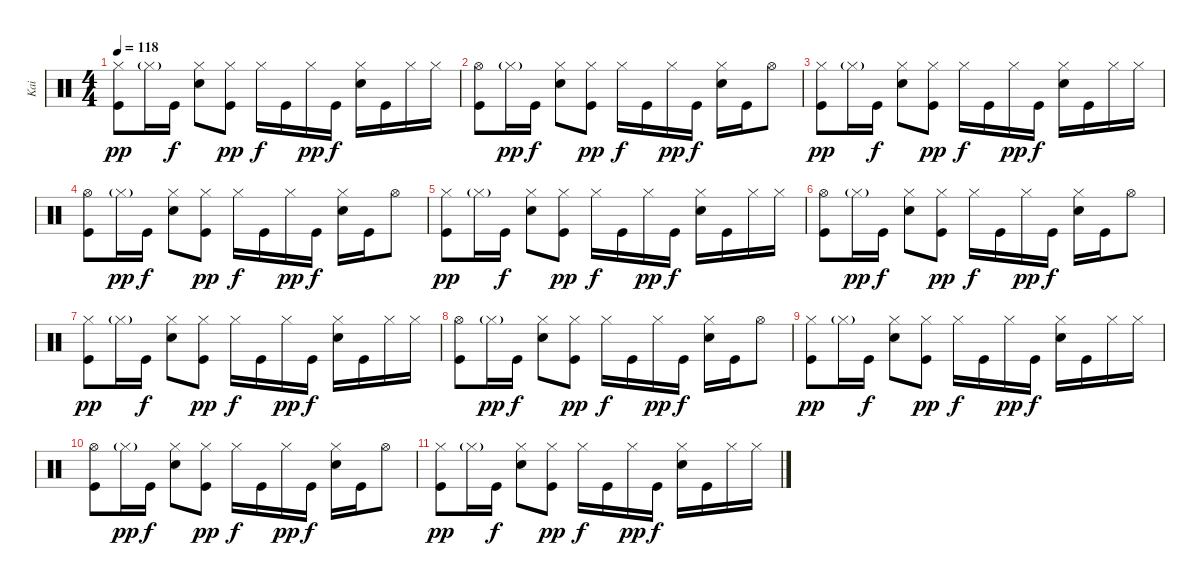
\track ("Kai" "Kai") {instrument percussion}
\staff {score}
\articulation defaults
\ts (4 4)
\tempo 118
\clef neutral
\ks c
("Hi-Hat (closed)" "Kick (hit)").8{dy pp} "Hi-Hat (closed)"{g}.16 "Kick (hit)".16{dy f} ("Hi-Hat (closed)" "Snare (hit) 2").8 ("Hi-Hat (closed)" "Kick (hit)").8{dy pp} "Hi-Hat (closed)".16{dy f} "Kick (hit)".16 "Hi-Hat (closed)".16{dy pp} "Kick (hit)".16{dy f} ("Hi-Hat (closed)" "Snare (hit) 2").16 "Kick (hit)".16 "Hi-Hat (closed)".16 "Hi-Hat (closed)".16 |
("Hi-Hat (open)" "Kick (hit)").8 "Hi-Hat (closed)"{g}.16{dy pp} "Kick (hit)".16{dy f} ("Hi-Hat (closed)" "Snare (hit) 2").8 ("Hi-Hat (closed)" "Kick (hit)").8{dy pp} "Hi-Hat (closed)".16{dy f} "Kick (hit)".16 "Hi-Hat (closed)".16{dy pp} "Kick (hit)".16{dy f} ("Hi-Hat (closed)" "Snare (hit) 2").16 "Kick (hit)".16 "Hi-Hat (open)".8 |
("Hi-Hat (closed)" "Kick (hit)").8{dy pp} "Hi-Hat (closed)"{g}.16 "Kick (hit)".16{dy f} ("Hi-Hat (closed)" "Snare (hit) 2").8 ("Hi-Hat (closed)" "Kick (hit)").8{dy pp} "Hi-Hat (closed)".16{dy f} "Kick (hit)".16 "Hi-Hat (closed)".16{dy pp} "Kick (hit)".16{dy f} ("Hi-Hat (closed)" "Snare (hit) 2").16 "Kick (hit)".16 "Hi-Hat (closed)".16 "Hi-Hat (closed)".16 |
("Hi-Hat (open)" "Kick (hit)").8 "Hi-Hat (closed)"{g}.16{dy pp} "Kick (hit)".16{dy f} ("Hi-Hat (closed)" "Snare (hit) 2").8 ("Hi-Hat (closed)" "Kick (hit)").8{dy pp} "Hi-Hat (closed)".16{dy f} "Kick (hit)".16 "Hi-Hat (closed)".16{dy pp} "Kick (hit)".16{dy f} ("Hi-Hat (closed)" "Snare (hit) 2").16 "Kick (hit)".16 "Hi-Hat (open)".8 |
("Hi-Hat (closed)" "Kick (hit)").8{dy pp} "Hi-Hat (closed)"{g}.16 "Kick (hit)".16{dy f} ("Hi-Hat (closed)" "Snare (hit) 2").8 ("Hi-Hat (closed)" "Kick (hit)").8{dy pp} "Hi-Hat (closed)".16{dy f} "Kick (hit)".16 "Hi-Hat (closed)".16{dy pp} "Kick (hit)".16{dy f} ("Hi-Hat (closed)" "Snare (hit) 2").16 "Kick (hit)".16 "Hi-Hat (closed)".16 "Hi-Hat (closed)".16 |
("Hi-Hat (open)" "Kick (hit)").8 "Hi-Hat (closed)"{g}.16{dy pp} "Kick (hit)".16{dy f} ("Hi-Hat (closed)" "Snare (hit) 2").8 ("Hi-Hat (closed)" "Kick (hit)").8{dy pp} "Hi-Hat (closed)".16{dy f} "Kick (hit)".16 "Hi-Hat (closed)".16{dy pp} "Kick (hit)".16{dy f} ("Hi-Hat (closed)" "Snare (hit) 2").16 "Kick (hit)".16 "Hi-Hat (open)".8 |
("Hi-Hat (closed)" "Kick (hit)").8{dy pp} "Hi-Hat (closed)"{g}.16 "Kick (hit)".16{dy f} ("Hi-Hat (closed)" "Snare (hit) 2").8 ("Hi-Hat (closed)" "Kick (hit)").8{dy pp} "Hi-Hat (closed)".16{dy f} "Kick (hit)".16 "Hi-Hat (closed)".16{dy pp} "Kick (hit)".16{dy f} ("Hi-Hat (closed)" "Snare (hit) 2").16 "Kick (hit)".16 "Hi-Hat (closed)".16 "Hi-Hat (closed)".16 |
("Hi-Hat (open)" "Kick (hit)").8 "Hi-Hat (closed)"{g}.16{dy pp} "Kick (hit)".16{dy f} ("Hi-Hat (closed)" "Snare (hit) 2").8 ("Hi-Hat (closed)" "Kick (hit)").8{dy pp} "Hi-Hat (closed)".16{dy f} "Kick (hit)".16 "Hi-Hat (closed)".16{dy pp} "Kick (hit)".16{dy f} ("Hi-Hat (closed)" "Snare (hit) 2").16 "Kick (hit)".16 "Hi-Hat (open)".8 |
("Hi-Hat (closed)" "Kick (hit)").8{dy pp} "Hi-Hat (closed)"{g}.16 "Kick (hit)".16{dy f} ("Hi-Hat (closed)" "Snare (hit) 2").8 ("Hi-Hat (closed)" "Kick (hit)").8{dy pp} "Hi-Hat (closed)".16{dy f} "Kick (hit)".16 "Hi-Hat (closed)".16{dy pp} "Kick (hit)".16{dy f} ("Hi-Hat (closed)" "Snare (hit) 2").16 "Kick (hit)".16 "Hi-Hat (closed)".16 "Hi-Hat (closed)".16 |
("Hi-Hat (open)" "Kick (hit)").8 "Hi-Hat (closed)"{g}.16{dy pp} "Kick (hit)".16{dy f} ("Hi-Hat (closed)" "Snare (hit) 2").8 ("Hi-Hat (closed)" "Kick (hit)").8{dy pp} "Hi-Hat (closed)".16{dy f} "Kick (hit)".16 "Hi-Hat (closed)".16{dy pp} "Kick (hit)".16{dy f} ("Hi-Hat (closed)" "Snare (hit) 2").16 "Kick (hit)".16 "Hi-Hat (open)".8 |
("Hi-Hat (closed)" "Kick (hit)").8{dy pp} "Hi-Hat (closed)"{g}.16 "Kick (hit)".16{dy f} ("Hi-Hat (closed)" "Snare (hit) 2").8 ("Hi-Hat (closed)" "Kick (hit)").8{dy pp} "Hi-Hat (closed)".16{dy f} "Kick (hit)".16 "Hi-Hat (closed)".16{dy pp} "Kick (hit)".16{dy f} ("Hi-Hat (closed)" "Snare (hit) 2").16 "Kick (hit)".16 "Hi-Hat (closed)".16 "Hi-Hat (closed)".16
